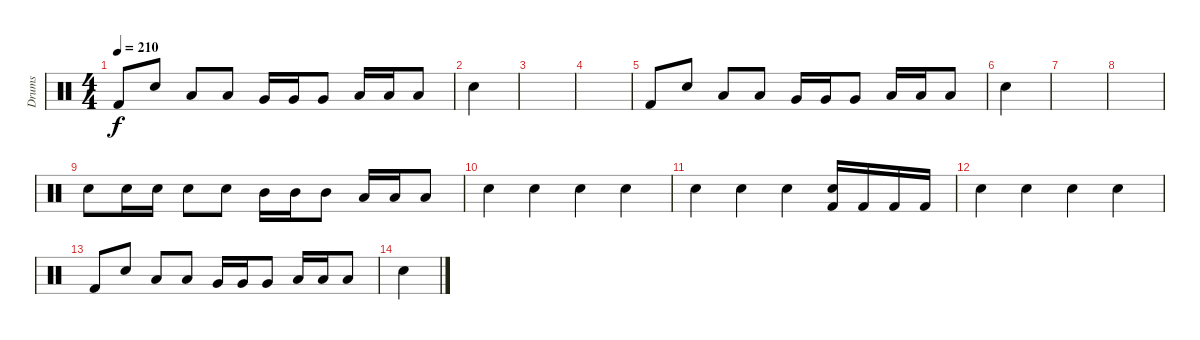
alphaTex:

\track ("Drums" "Drums") {instrument percussion}
\staff {score}
\articulation defaults
\ts (4 4)
\tempo 210
\clef neutral
\ks c "Kick (hit) 2".8{dy f} "Electric Snare (hit)".8 "Low Tom (hit)".8 "Low Tom (hit)".8 "Very Low Tom (hit)".16 "Very Low Tom (hit)".16 "Very Low Tom (hit)".8 "Low Floor Tom (hit)".16 "Low Floor Tom (hit)".16 "Low Floor Tom (hit)".8
|
"Electric Snare (hit)".4 |
|
|
"Kick (hit) 2".8 "Electric Snare (hit)".8 "Low Tom (hit)".8 "Low Tom (hit)".8 "Very Low Tom (hit)".16 "Very Low Tom (hit)".16 "Very Low Tom (hit)".8 "Low Floor Tom (hit)".16 "Low Floor Tom (hit)".16 "Low Floor Tom (hit)".8 |
"Electric Snare (hit)".4 |
|
|
"Electric Snare (hit)".8 "Electric Snare (hit)".16 "Electric Snare (hit)".16 "Electric Snare (hit)".8 "Electric Snare (hit)".8 "Mid Tom (hit)".16 "Mid Tom (hit)".16 "Mid Tom (hit)".8 "Low Tom (hit)".16 "Low Tom (hit)".16 "Low Tom (hit)".8 |
"Electric Snare (hit)".4 "Electric Snare (hit)".4 "Electric Snare (hit)".4 "Electric Snare (hit)".4 |
"Electric Snare (hit)".4 "Electric Snare (hit)".4 "Electric Snare (hit)".4 ("Electric Snare (hit)" "Kick (hit) 2").16 "Kick (hit) 2".16 "Kick (hit) 2".16 "Kick (hit) 2".16 |
"Electric Snare (hit)".4 "Electric Snare (hit)".4 "Electric Snare (hit)".4 "Electric Snare (hit)".4 |
"Kick (hit) 2".8 "Electric Snare (hit)".8 "Low Tom (hit)".8 "Low Tom (hit)".8 "Very Low Tom (hit)".16 "Very Low Tom (hit)".16 "Very Low Tom (hit)".8 "Low Floor Tom (hit)".16 "Low Floor Tom (hit)".16 "Low Floor Tom (hit)".8 |
"Electric Snare (hit)".4
